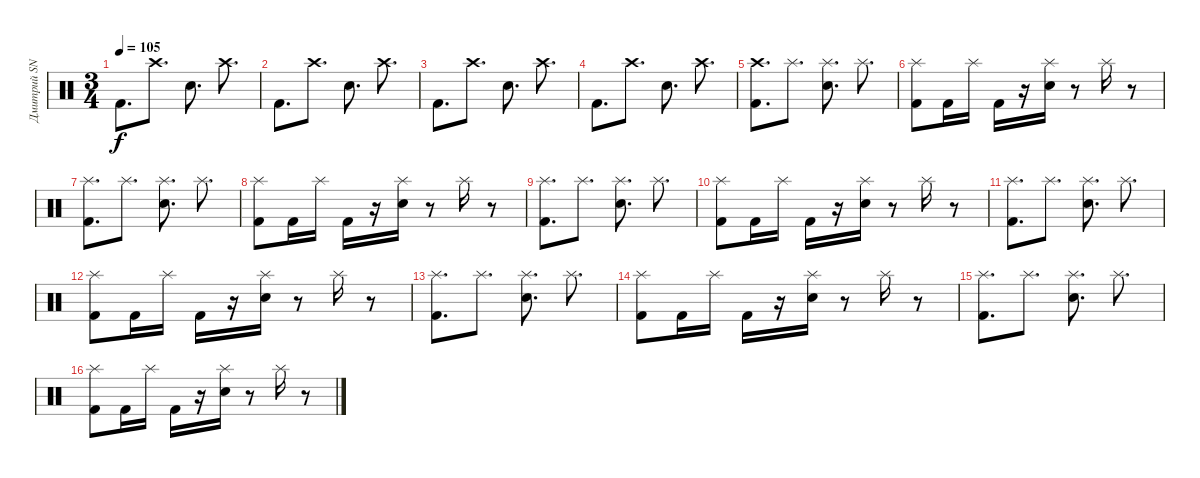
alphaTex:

\track ("Дмитрий SNAKE Хакимов" "Дмитрий SN") {instrument percussion}
\staff {score}
\articulation defaults
\ts (3 4)
\tempo 105
\clef neutral
\ks c "Kick (hit) 2".8{d dy f} "Crash high (hit)".8{d} "Snare (hit) 2".8{d} "Crash high (hit)".8{d}
|
"Kick (hit) 2".8{d} "Crash high (hit)".8{d} "Snare (hit) 2".8{d} "Crash high (hit)".8{d} |
"Kick (hit) 2".8{d} "Crash high (hit)".8{d} "Snare (hit) 2".8{d} "Crash high (hit)".8{d} |
"Kick (hit) 2".8{d} "Crash high (hit)".8{d} "Snare (hit) 2".8{d} "Crash high (hit)".8{d} |
("Crash high (hit)" "Kick (hit) 2").8{d} "Splash (hit)".8{d} ("Splash (hit)" "Snare (hit) 2").8{d} "Splash (hit)".8{d} |
("Splash (hit)" "Kick (hit) 2").8 "Kick (hit) 2".16 "Splash (hit)".16 "Kick (hit) 2".16 r.16 ("Splash (hit)" "Snare (hit) 2").16 r.8 "Splash (hit)".16 r.8 |
("Splash (hit)" "Kick (hit) 2").8{d} "Splash (hit)".8{d} ("Splash (hit)" "Snare (hit) 2").8{d} "Splash (hit)".8{d} |
("Splash (hit)" "Kick (hit) 2").8 "Kick (hit) 2".16 "Splash (hit)".16 "Kick (hit) 2".16 r.16 ("Splash (hit)" "Snare (hit) 2").16 r.8 "Splash (hit)".16 r.8 |
("Splash (hit)" "Kick (hit) 2").8{d} "Splash (hit)".8{d} ("Splash (hit)" "Snare (hit) 2").8{d} "Splash (hit)".8{d} |
("Splash (hit)" "Kick (hit) 2").8 "Kick (hit) 2".16 "Splash (hit)".16 "Kick (hit) 2".16 r.16 ("Splash (hit)" "Snare (hit) 2").16 r.8 "Splash (hit)".16 r.8 |
("Splash (hit)" "Kick (hit) 2").8{d} "Splash (hit)".8{d} ("Splash (hit)" "Snare (hit) 2").8{d} "Splash (hit)".8{d} |
("Splash (hit)" "Kick (hit) 2").8 "Kick (hit) 2".16 "Splash (hit)".16 "Kick (hit) 2".16 r.16 ("Splash (hit)" "Snare (hit) 2").16 r.8 "Splash (hit)".16 r.8 |
("Splash (hit)" "Kick (hit) 2").8{d} "Splash (hit)".8{d} ("Splash (hit)" "Snare (hit) 2").8{d} "Splash (hit)".8{d} |
("Splash (hit)" "Kick (hit) 2").8 "Kick (hit) 2".16 "Splash (hit)".16 "Kick (hit) 2".16 r.16 ("Splash (hit)" "Snare (hit) 2").16 r.8 "Splash (hit)".16 r.8 |
("Splash (hit)" "Kick (hit) 2").8{d} "Splash (hit)".8{d} ("Splash (hit)" "Snare (hit) 2").8{d} "Splash (hit)".8{d} |
("Splash (hit)" "Kick (hit) 2").8 "Kick (hit) 2".16 "Splash (hit)".16 "Kick (hit) 2".16 r.16 ("Splash (hit)" "Snare (hit) 2").16 r.8 "Splash (hit)".16 r.8
